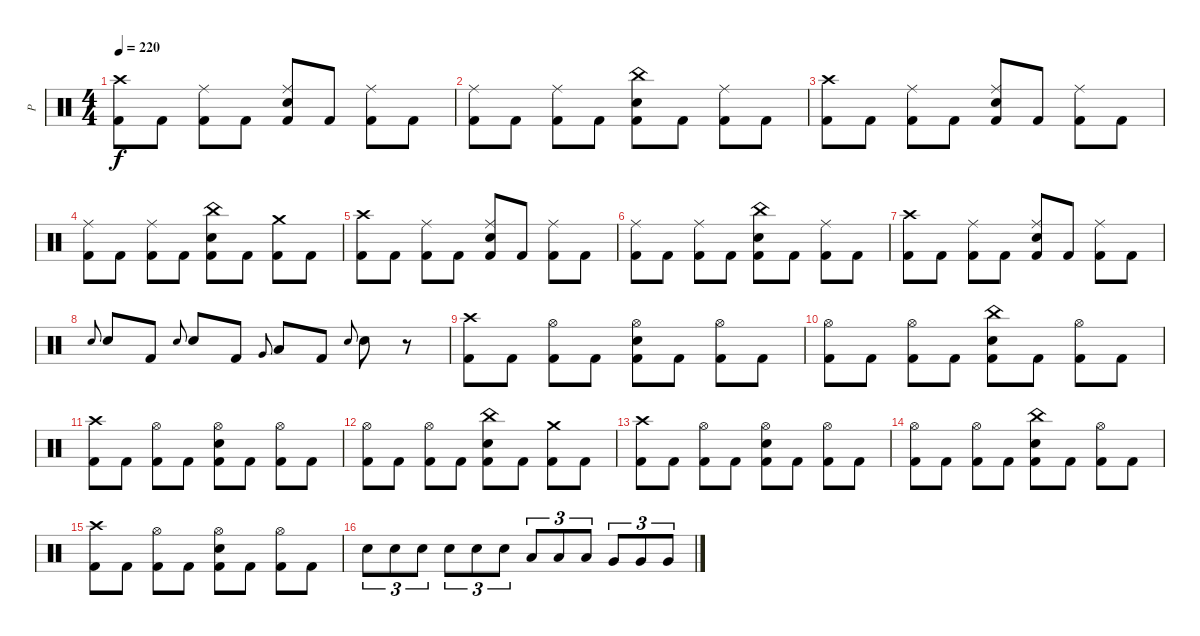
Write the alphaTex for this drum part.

\track ("P" "P") {instrument percussion}
\staff {score}
\articulation defaults
\ts (4 4)
\tempo 220
\clef neutral
\ks c
("Crash high (hit)" "Kick (hit) 2").8{dy f} "Kick (hit) 2".8 ("Ride (middle)" "Kick (hit) 2").8 "Kick (hit) 2".8 ("Ride (middle)" "Electric Snare (hit)" "Kick (hit) 2").8 "Kick (hit) 2".8 ("Ride (middle)" "Kick (hit) 2").8 "Kick (hit) 2".8 |
("Ride (middle)" "Kick (hit) 2").8 "Kick (hit) 2".8 ("Ride (middle)" "Kick (hit) 2").8 "Kick (hit) 2".8 ("China (hit)" "Electric Snare (hit)" "Kick (hit) 2").8 "Kick (hit) 2".8 ("Ride (middle)" "Kick (hit) 2").8 "Kick (hit) 2".8 |
("Crash high (hit)" "Kick (hit) 2").8 "Kick (hit) 2".8 ("Ride (middle)" "Kick (hit) 2").8 "Kick (hit) 2".8 ("Ride (middle)" "Electric Snare (hit)" "Kick (hit) 2").8 "Kick (hit) 2".8 ("Ride (middle)" "Kick (hit) 2").8 "Kick (hit) 2".8 |
("Ride (middle)" "Kick (hit) 2").8 "Kick (hit) 2".8 ("Ride (middle)" "Kick (hit) 2").8 "Kick (hit) 2".8 ("China (hit)" "Electric Snare (hit)" "Kick (hit) 2").8 "Kick (hit) 2".8 ("Crash medium (hit)" "Kick (hit) 2").8 "Kick (hit) 2".8 |
("Crash high (hit)" "Kick (hit) 2").8 "Kick (hit) 2".8 ("Ride (middle)" "Kick (hit) 2").8 "Kick (hit) 2".8 ("Ride (middle)" "Electric Snare (hit)" "Kick (hit) 2").8 "Kick (hit) 2".8 ("Ride (middle)" "Kick (hit) 2").8 "Kick (hit) 2".8 |
("Ride (middle)" "Kick (hit) 2").8 "Kick (hit) 2".8 ("Ride (middle)" "Kick (hit) 2").8 "Kick (hit) 2".8 ("China (hit)" "Electric Snare (hit)" "Kick (hit) 2").8 "Kick (hit) 2".8 ("Ride (middle)" "Kick (hit) 2").8 "Kick (hit) 2".8 |
("Crash high (hit)" "Kick (hit) 2").8 "Kick (hit) 2".8 ("Ride (middle)" "Kick (hit) 2").8 "Kick (hit) 2".8 ("Ride (middle)" "Electric Snare (hit)" "Kick (hit) 2").8 "Kick (hit) 2".8 ("Ride (middle)" "Kick (hit) 2").8 "Kick (hit) 2".8 |
"Electric Snare (hit)".8{gr onbeat} "Electric Snare (hit)".8 "Kick (hit) 2".8 "Electric Snare (hit)".8{gr onbeat} "Electric Snare (hit)".8 "Kick (hit) 2".8 "Very Low Tom (hit)".8{gr onbeat} "Low Tom (hit)".8 "Kick (hit) 2".8 "Electric Snare (hit)".8{gr onbeat} "Electric Snare (hit)".8 r.8 |
("Crash high (hit)" "Kick (hit) 2").8 "Kick (hit) 2".8 ("Hi-Hat (open)" "Kick (hit) 2").8 "Kick (hit) 2".8 ("Hi-Hat (open)" "Electric Snare (hit)" "Kick (hit) 2").8 "Kick (hit) 2".8 ("Hi-Hat (open)" "Kick (hit) 2").8 "Kick (hit) 2".8 |
("Hi-Hat (open)" "Kick (hit) 2").8 "Kick (hit) 2".8 ("Hi-Hat (open)" "Kick (hit) 2").8 "Kick (hit) 2".8 ("China (hit)" "Electric Snare (hit)" "Kick (hit) 2").8 "Kick (hit) 2".8 ("Hi-Hat (open)" "Kick (hit) 2").8 "Kick (hit) 2".8 |
("Crash high (hit)" "Kick (hit) 2").8 "Kick (hit) 2".8 ("Hi-Hat (open)" "Kick (hit) 2").8 "Kick (hit) 2".8 ("Hi-Hat (open)" "Electric Snare (hit)" "Kick (hit) 2").8 "Kick (hit) 2".8 ("Hi-Hat (open)" "Kick (hit) 2").8 "Kick (hit) 2".8 |
("Hi-Hat (open)" "Kick (hit) 2").8 "Kick (hit) 2".8 ("Hi-Hat (open)" "Kick (hit) 2").8 "Kick (hit) 2".8 ("China (hit)" "Electric Snare (hit)" "Kick (hit) 2").8 "Kick (hit) 2".8 ("Crash medium (hit)" "Kick (hit) 2").8 "Kick (hit) 2".8 |
("Crash high (hit)" "Kick (hit) 2").8 "Kick (hit) 2".8 ("Hi-Hat (open)" "Kick (hit) 2").8 "Kick (hit) 2".8 ("Hi-Hat (open)" "Electric Snare (hit)" "Kick (hit) 2").8 "Kick (hit) 2".8 ("Hi-Hat (open)" "Kick (hit) 2").8 "Kick (hit) 2".8 |
("Hi-Hat (open)" "Kick (hit) 2").8 "Kick (hit) 2".8 ("Hi-Hat (open)" "Kick (hit) 2").8 "Kick (hit) 2".8 ("China (hit)" "Electric Snare (hit)" "Kick (hit) 2").8 "Kick (hit) 2".8 ("Hi-Hat (open)" "Kick (hit) 2").8 "Kick (hit) 2".8 |
("Crash high (hit)" "Kick (hit) 2").8 "Kick (hit) 2".8 ("Hi-Hat (open)" "Kick (hit) 2").8 "Kick (hit) 2".8 ("Hi-Hat (open)" "Electric Snare (hit)" "Kick (hit) 2").8 "Kick (hit) 2".8 ("Hi-Hat (open)" "Kick (hit) 2").8 "Kick (hit) 2".8 |
"Electric Snare (hit)".8{tu (3 2)} "Electric Snare (hit)".8{tu (3 2)} "Electric Snare (hit)".8{tu (3 2)} "Electric Snare (hit)".8{tu (3 2)} "Electric Snare (hit)".8{tu (3 2)} "Electric Snare (hit)".8{tu (3 2)} "Low Tom (hit)".8{tu (3 2)} "Low Tom (hit)".8{tu (3 2)} "Low Tom (hit)".8{tu (3 2)} "Very Low Tom (hit)".8{tu (3 2)} "Very Low Tom (hit)".8{tu (3 2)} "Very Low Tom (hit)".8{tu (3 2)}
